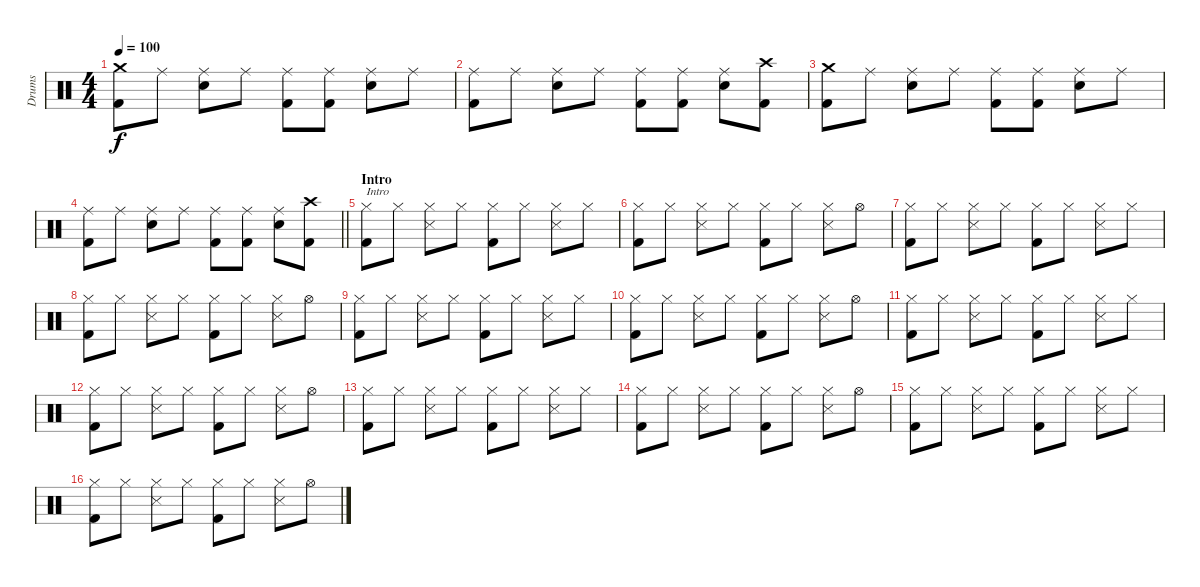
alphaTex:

\track ("Drums" "Drums") {instrument percussion}
\staff {score}
\articulation defaults
\ts (4 4)
\tempo 100
\clef neutral
\ks c
("Kick (hit) 2" "Crash medium (hit)").8{dy f} "Ride (middle)".8 ("Electric Snare (hit)" "Ride (middle)").8 "Ride (middle)".8 ("Kick (hit) 2" "Ride (middle)").8 ("Kick (hit) 2" "Ride (middle)").8 ("Electric Snare (hit)" "Ride (middle)").8 "Ride (middle)".8 |
("Kick (hit) 2" "Ride (middle)").8 "Ride (middle)".8 ("Electric Snare (hit)" "Ride (middle)").8 "Ride (middle)".8 ("Kick (hit) 2" "Ride (middle)").8 ("Kick (hit) 2" "Ride (middle)").8 ("Electric Snare (hit)" "Ride (middle)").8 ("Kick (hit) 2" "Crash high (hit)").8 |
("Kick (hit) 2" "Crash medium (hit)").8 "Ride (middle)".8 ("Electric Snare (hit)" "Ride (middle)").8 "Ride (middle)".8 ("Kick (hit) 2" "Ride (middle)").8 ("Kick (hit) 2" "Ride (middle)").8 ("Electric Snare (hit)" "Ride (middle)").8 "Ride (middle)".8 |
\barLineRight lightlight
("Kick (hit) 2" "Ride (middle)").8 "Ride (middle)".8 ("Electric Snare (hit)" "Ride (middle)").8 "Ride (middle)".8 ("Kick (hit) 2" "Ride (middle)").8 ("Kick (hit) 2" "Ride (middle)").8 ("Electric Snare (hit)" "Ride (middle)").8 ("Kick (hit) 2" "Crash high (hit)").8 |
\section ("" "Intro")
("Kick (hit) 2" "Hi-Hat (closed)").8{txt "Intro"} "Hi-Hat (closed)".8 ("Snare (side stick) 3" "Hi-Hat (closed)").8 "Hi-Hat (closed)".8 ("Kick (hit) 2" "Hi-Hat (closed)").8 "Hi-Hat (closed)".8 ("Snare (side stick) 3" "Hi-Hat (closed)").8 "Hi-Hat (closed)".8 |
("Kick (hit) 2" "Hi-Hat (closed)").8 "Hi-Hat (closed)".8 ("Snare (side stick) 3" "Hi-Hat (closed)").8 "Hi-Hat (closed)".8 ("Kick (hit) 2" "Hi-Hat (closed)").8 "Hi-Hat (closed)".8 ("Snare (side stick) 3" "Hi-Hat (closed)").8 "Hi-Hat (open)".8 |
("Kick (hit) 2" "Hi-Hat (closed)").8 "Hi-Hat (closed)".8 ("Snare (side stick) 3" "Hi-Hat (closed)").8 "Hi-Hat (closed)".8 ("Kick (hit) 2" "Hi-Hat (closed)").8 "Hi-Hat (closed)".8 ("Snare (side stick) 3" "Hi-Hat (closed)").8 "Hi-Hat (closed)".8 |
("Kick (hit) 2" "Hi-Hat (closed)").8 "Hi-Hat (closed)".8 ("Snare (side stick) 3" "Hi-Hat (closed)").8 "Hi-Hat (closed)".8 ("Kick (hit) 2" "Hi-Hat (closed)").8 "Hi-Hat (closed)".8 ("Snare (side stick) 3" "Hi-Hat (closed)").8 "Hi-Hat (open)".8 |
("Kick (hit) 2" "Hi-Hat (closed)").8 "Hi-Hat (closed)".8 ("Snare (side stick) 3" "Hi-Hat (closed)").8 "Hi-Hat (closed)".8 ("Kick (hit) 2" "Hi-Hat (closed)").8 "Hi-Hat (closed)".8 ("Snare (side stick) 3" "Hi-Hat (closed)").8 "Hi-Hat (closed)".8 |
("Kick (hit) 2" "Hi-Hat (closed)").8 "Hi-Hat (closed)".8 ("Snare (side stick) 3" "Hi-Hat (closed)").8 "Hi-Hat (closed)".8 ("Kick (hit) 2" "Hi-Hat (closed)").8 "Hi-Hat (closed)".8 ("Snare (side stick) 3" "Hi-Hat (closed)").8 "Hi-Hat (open)".8 |
("Kick (hit) 2" "Hi-Hat (closed)").8 "Hi-Hat (closed)".8 ("Snare (side stick) 3" "Hi-Hat (closed)").8 "Hi-Hat (closed)".8 ("Kick (hit) 2" "Hi-Hat (closed)").8 "Hi-Hat (closed)".8 ("Snare (side stick) 3" "Hi-Hat (closed)").8 "Hi-Hat (closed)".8 |
("Kick (hit) 2" "Hi-Hat (closed)").8 "Hi-Hat (closed)".8 ("Snare (side stick) 3" "Hi-Hat (closed)").8 "Hi-Hat (closed)".8 ("Kick (hit) 2" "Hi-Hat (closed)").8 "Hi-Hat (closed)".8 ("Snare (side stick) 3" "Hi-Hat (closed)").8 "Hi-Hat (open)".8 |
("Kick (hit) 2" "Hi-Hat (closed)").8 "Hi-Hat (closed)".8 ("Snare (side stick) 3" "Hi-Hat (closed)").8 "Hi-Hat (closed)".8 ("Kick (hit) 2" "Hi-Hat (closed)").8 "Hi-Hat (closed)".8 ("Snare (side stick) 3" "Hi-Hat (closed)").8 "Hi-Hat (closed)".8 |
("Kick (hit) 2" "Hi-Hat (closed)").8 "Hi-Hat (closed)".8 ("Snare (side stick) 3" "Hi-Hat (closed)").8 "Hi-Hat (closed)".8 ("Kick (hit) 2" "Hi-Hat (closed)").8 "Hi-Hat (closed)".8 ("Snare (side stick) 3" "Hi-Hat (closed)").8 "Hi-Hat (open)".8 |
("Kick (hit) 2" "Hi-Hat (closed)").8 "Hi-Hat (closed)".8 ("Snare (side stick) 3" "Hi-Hat (closed)").8 "Hi-Hat (closed)".8 ("Kick (hit) 2" "Hi-Hat (closed)").8 "Hi-Hat (closed)".8 ("Snare (side stick) 3" "Hi-Hat (closed)").8 "Hi-Hat (closed)".8 |
("Kick (hit) 2" "Hi-Hat (closed)").8 "Hi-Hat (closed)".8 ("Snare (side stick) 3" "Hi-Hat (closed)").8 "Hi-Hat (closed)".8 ("Kick (hit) 2" "Hi-Hat (closed)").8 "Hi-Hat (closed)".8 ("Snare (side stick) 3" "Hi-Hat (closed)").8 "Hi-Hat (open)".8
